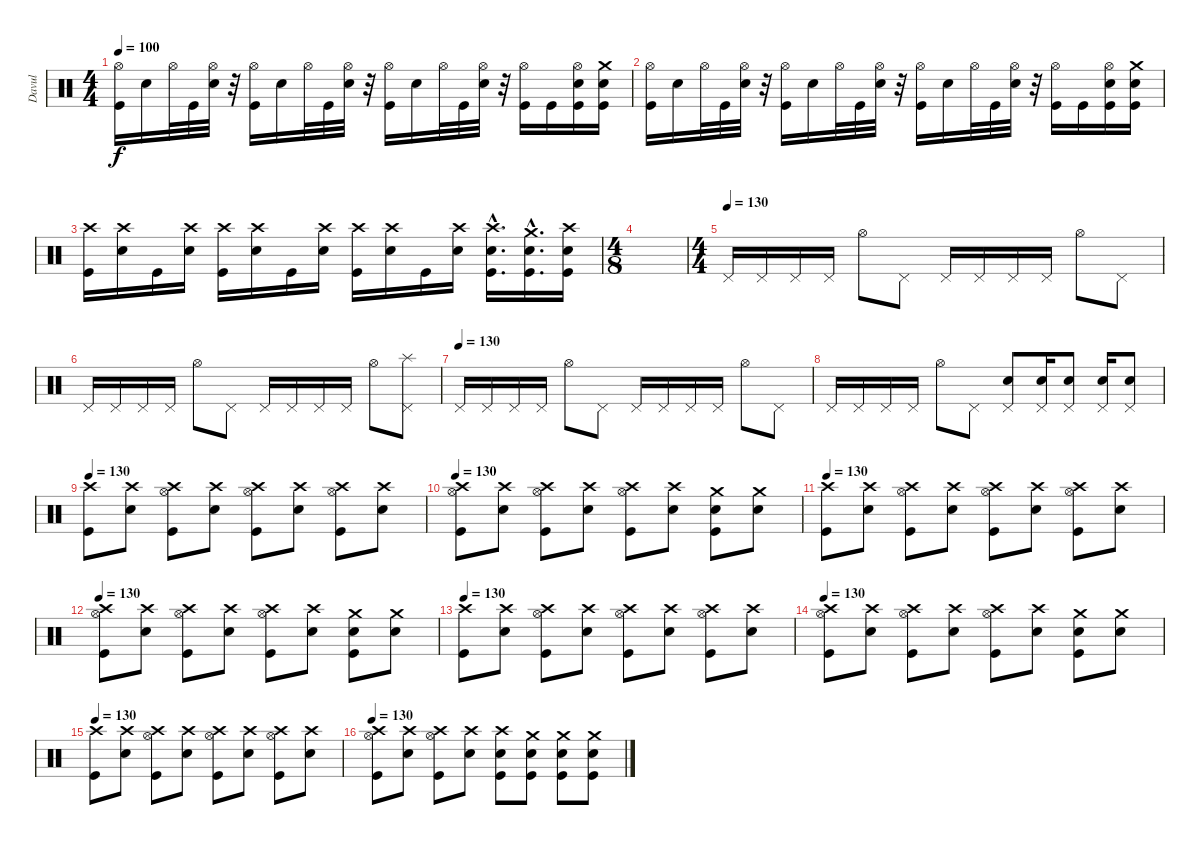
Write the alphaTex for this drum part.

\track ("Davul" "Davul") {instrument percussion}
\staff {score}
\articulation defaults
\ts (4 4)
\tempo 100
\clef neutral
\ks c
("Hi-Hat (open)" "Kick (hit)").16{dy f} "Electric Snare (hit)".16 "Hi-Hat (open)".32 "Kick (hit)".32 ("Hi-Hat (open)" "Electric Snare (hit)").32 r.32 ("Hi-Hat (open)" "Kick (hit)").16 "Electric Snare (hit)".16 "Hi-Hat (open)".32 "Kick (hit)".32 ("Hi-Hat (open)" "Electric Snare (hit)").32 r.32 ("Hi-Hat (open)" "Kick (hit)").16 "Electric Snare (hit)".16 "Hi-Hat (open)".32 "Kick (hit)".32 ("Hi-Hat (open)" "Electric Snare (hit)").32 r.32 ("Hi-Hat (open)" "Kick (hit)").16 "Kick (hit)".16 ("Hi-Hat (open)" "Electric Snare (hit)" "Kick (hit)").16 ("Crash medium (hit)" "Electric Snare (hit)" "Kick (hit)").16 |
("Hi-Hat (open)" "Kick (hit)").16 "Electric Snare (hit)".16 "Hi-Hat (open)".32 "Kick (hit)".32 ("Hi-Hat (open)" "Electric Snare (hit)").32 r.32 ("Hi-Hat (open)" "Kick (hit)").16 "Electric Snare (hit)".16 "Hi-Hat (open)".32 "Kick (hit)".32 ("Hi-Hat (open)" "Electric Snare (hit)").32 r.32 ("Hi-Hat (open)" "Kick (hit)").16 "Electric Snare (hit)".16 "Hi-Hat (open)".32 "Kick (hit)".32 ("Hi-Hat (open)" "Electric Snare (hit)").32 r.32 ("Hi-Hat (open)" "Kick (hit)").16 "Kick (hit)".16 ("Hi-Hat (open)" "Electric Snare (hit)" "Kick (hit)").16 ("Crash medium (hit)" "Electric Snare (hit)" "Kick (hit)").16 |
("Crash high (hit)" "Kick (hit)").16 ("Crash high (hit)" "Electric Snare (hit)").16 "Kick (hit)".16 ("Crash high (hit)" "Electric Snare (hit)").16 ("Crash high (hit)" "Kick (hit)").16 ("Crash high (hit)" "Electric Snare (hit)").16 "Kick (hit)".16 ("Crash high (hit)" "Electric Snare (hit)").16 ("Crash high (hit)" "Kick (hit)").16 ("Crash high (hit)" "Electric Snare (hit)").16 "Kick (hit)".16 ("Crash high (hit)" "Electric Snare (hit)").16 ("Crash high (hit)"{hac} "Electric Snare (hit)"{hac} "Kick (hit)"{hac}).16{d} ("Crash medium (hit)"{hac} "Electric Snare (hit)"{hac} "Kick (hit)"{hac}).16{d} ("Crash high (hit)" "Electric Snare (hit)" "Kick (hit)").16 |
\ts (4 8)
|
\ts (4 4)
\tempo (130)
"Pedal Hi-Hat (hit)".16 "Pedal Hi-Hat (hit)".16 "Pedal Hi-Hat (hit)".16 "Pedal Hi-Hat (hit)".16 "Hi-Hat (open)".8 "Pedal Hi-Hat (hit)".8 "Pedal Hi-Hat (hit)".16 "Pedal Hi-Hat (hit)".16 "Pedal Hi-Hat (hit)".16 "Pedal Hi-Hat (hit)".16 "Hi-Hat (open)".8 "Pedal Hi-Hat (hit)".8 |
"Pedal Hi-Hat (hit)".16 "Pedal Hi-Hat (hit)".16 "Pedal Hi-Hat (hit)".16 "Pedal Hi-Hat (hit)".16 "Hi-Hat (open)".8 "Pedal Hi-Hat (hit)".8 "Pedal Hi-Hat (hit)".16 "Pedal Hi-Hat (hit)".16 "Pedal Hi-Hat (hit)".16 "Pedal Hi-Hat (hit)".16 "Hi-Hat (open)".8 ("Splash (hit)" "Pedal Hi-Hat (hit)").8 |
\tempo (130)
"Pedal Hi-Hat (hit)".16 "Pedal Hi-Hat (hit)".16 "Pedal Hi-Hat (hit)".16 "Pedal Hi-Hat (hit)".16 "Hi-Hat (open)".8 "Pedal Hi-Hat (hit)".8 "Pedal Hi-Hat (hit)".16 "Pedal Hi-Hat (hit)".16 "Pedal Hi-Hat (hit)".16 "Pedal Hi-Hat (hit)".16 "Hi-Hat (open)".8 "Pedal Hi-Hat (hit)".8 |
"Pedal Hi-Hat (hit)".16 "Pedal Hi-Hat (hit)".16 "Pedal Hi-Hat (hit)".16 "Pedal Hi-Hat (hit)".16 "Hi-Hat (open)".8 "Pedal Hi-Hat (hit)".8 ("Pedal Hi-Hat (hit)" "Electric Snare (hit)").8 ("Pedal Hi-Hat (hit)" "Electric Snare (hit)").16 ("Pedal Hi-Hat (hit)" "Electric Snare (hit)").8 ("Pedal Hi-Hat (hit)" "Electric Snare (hit)").16 ("Pedal Hi-Hat (hit)" "Electric Snare (hit)").8 |
\tempo 130
("Crash high (hit)" "Kick (hit)").8 ("Crash high (hit)" "Electric Snare (hit)").8 ("Crash high (hit)" "Hi-Hat (open)" "Kick (hit)").8 ("Crash high (hit)" "Electric Snare (hit)").8 ("Crash high (hit)" "Hi-Hat (open)" "Kick (hit)").8 ("Crash high (hit)" "Electric Snare (hit)").8 ("Crash high (hit)" "Hi-Hat (open)" "Kick (hit)").8 ("Crash high (hit)" "Electric Snare (hit)").8 |
\tempo 130
("Crash high (hit)" "Hi-Hat (open)" "Kick (hit)").8 ("Crash high (hit)" "Electric Snare (hit)").8 ("Crash high (hit)" "Hi-Hat (open)" "Kick (hit)").8 ("Crash high (hit)" "Electric Snare (hit)").8 ("Crash high (hit)" "Hi-Hat (open)" "Kick (hit)").8 ("Crash high (hit)" "Electric Snare (hit)").8 ("Crash medium (hit)" "Electric Snare (hit)" "Kick (hit)").8 ("Crash medium (hit)" "Electric Snare (hit)").8 |
\tempo 130
("Crash high (hit)" "Kick (hit)").8 ("Crash high (hit)" "Electric Snare (hit)").8 ("Crash high (hit)" "Hi-Hat (open)" "Kick (hit)").8 ("Crash high (hit)" "Electric Snare (hit)").8 ("Crash high (hit)" "Hi-Hat (open)" "Kick (hit)").8 ("Crash high (hit)" "Electric Snare (hit)").8 ("Crash high (hit)" "Hi-Hat (open)" "Kick (hit)").8 ("Crash high (hit)" "Electric Snare (hit)").8 |
\tempo 130
("Crash high (hit)" "Hi-Hat (open)" "Kick (hit)").8 ("Crash high (hit)" "Electric Snare (hit)").8 ("Crash high (hit)" "Hi-Hat (open)" "Kick (hit)").8 ("Crash high (hit)" "Electric Snare (hit)").8 ("Crash high (hit)" "Hi-Hat (open)" "Kick (hit)").8 ("Crash high (hit)" "Electric Snare (hit)").8 ("Crash medium (hit)" "Electric Snare (hit)" "Kick (hit)").8 ("Crash medium (hit)" "Electric Snare (hit)").8 |
\tempo 130
("Crash high (hit)" "Kick (hit)").8 ("Crash high (hit)" "Electric Snare (hit)").8 ("Crash high (hit)" "Hi-Hat (open)" "Kick (hit)").8 ("Crash high (hit)" "Electric Snare (hit)").8 ("Crash high (hit)" "Hi-Hat (open)" "Kick (hit)").8 ("Crash high (hit)" "Electric Snare (hit)").8 ("Crash high (hit)" "Hi-Hat (open)" "Kick (hit)").8 ("Crash high (hit)" "Electric Snare (hit)").8 |
\tempo 130
("Crash high (hit)" "Hi-Hat (open)" "Kick (hit)").8 ("Crash high (hit)" "Electric Snare (hit)").8 ("Crash high (hit)" "Hi-Hat (open)" "Kick (hit)").8 ("Crash high (hit)" "Electric Snare (hit)").8 ("Crash high (hit)" "Hi-Hat (open)" "Kick (hit)").8 ("Crash high (hit)" "Electric Snare (hit)").8 ("Crash medium (hit)" "Electric Snare (hit)" "Kick (hit)").8 ("Crash medium (hit)" "Electric Snare (hit)").8 |
\tempo 130
("Crash high (hit)" "Kick (hit)").8 ("Crash high (hit)" "Electric Snare (hit)").8 ("Crash high (hit)" "Hi-Hat (open)" "Kick (hit)").8 ("Crash high (hit)" "Electric Snare (hit)").8 ("Crash high (hit)" "Hi-Hat (open)" "Kick (hit)").8 ("Crash high (hit)" "Electric Snare (hit)").8 ("Crash high (hit)" "Hi-Hat (open)" "Kick (hit)").8 ("Crash high (hit)" "Electric Snare (hit)").8 |
\tempo 130
("Crash high (hit)" "Hi-Hat (open)" "Kick (hit)").8 ("Crash high (hit)" "Electric Snare (hit)").8 ("Crash high (hit)" "Hi-Hat (open)" "Kick (hit)").8 ("Crash high (hit)" "Electric Snare (hit)").8 ("Crash high (hit)" "Electric Snare (hit)"{x} "Kick (hit)").8 ("Crash medium (hit)" "Electric Snare (hit)" "Kick (hit)").8 ("Crash medium (hit)" "Electric Snare (hit)"{x} "Kick (hit)").8 ("Crash medium (hit)" "Electric Snare (hit)" "Kick (hit)").8
